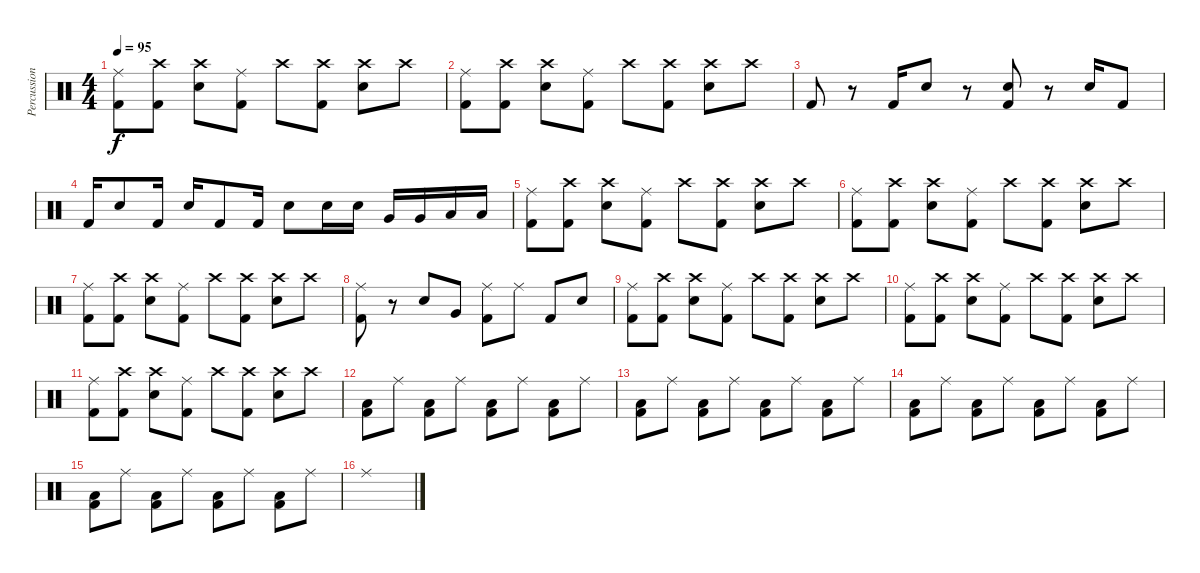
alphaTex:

\track ("Percussion" "Percussion") {instrument percussion}
\staff {score}
\articulation defaults
\ts (4 4)
\tempo 95
\clef neutral
\ks c
("Ride (middle)" "Kick (hit) 2").8{dy f} ("Crash high (hit)" "Kick (hit) 2").8 ("Crash high (hit)" "Snare (hit) 2").8 ("Ride (middle)" "Kick (hit) 2").8 "Crash high (hit)".8 ("Crash high (hit)" "Kick (hit) 2").8 ("Crash high (hit)" "Snare (hit) 2").8 "Crash high (hit)".8 |
("Ride (middle)" "Kick (hit) 2").8 ("Crash high (hit)" "Kick (hit) 2").8 ("Crash high (hit)" "Snare (hit) 2").8 ("Ride (middle)" "Kick (hit) 2").8 "Crash high (hit)".8 ("Crash high (hit)" "Kick (hit) 2").8 ("Crash high (hit)" "Snare (hit) 2").8 "Crash high (hit)".8 |
"Kick (hit) 2".8 r.8 "Kick (hit) 2".16 "Snare (hit) 2".8 r.8 ("Snare (hit) 2" "Kick (hit) 2").8 r.8 "Snare (hit) 2".16 "Kick (hit) 2".8 |
"Kick (hit) 2".16 "Snare (hit) 2".8 "Kick (hit) 2".16 "Snare (hit) 2".16 "Kick (hit) 2".8 "Kick (hit) 2".16 "Snare (hit) 2".8 "Snare (hit) 2".16 "Snare (hit) 2".16 "Very Low Tom (hit)".16 "Very Low Tom (hit)".16 "Low Floor Tom (hit)".16 "Low Floor Tom (hit)".16 |
("Ride (middle)" "Kick (hit) 2").8 ("Crash high (hit)" "Kick (hit) 2").8 ("Crash high (hit)" "Snare (hit) 2").8 ("Ride (middle)" "Kick (hit) 2").8 "Crash high (hit)".8 ("Crash high (hit)" "Kick (hit) 2").8 ("Crash high (hit)" "Snare (hit) 2").8 "Crash high (hit)".8 |
("Ride (middle)" "Kick (hit) 2").8 ("Crash high (hit)" "Kick (hit) 2").8 ("Crash high (hit)" "Snare (hit) 2").8 ("Ride (middle)" "Kick (hit) 2").8 "Crash high (hit)".8 ("Crash high (hit)" "Kick (hit) 2").8 ("Crash high (hit)" "Snare (hit) 2").8 "Crash high (hit)".8 |
("Ride (middle)" "Kick (hit) 2").8 ("Crash high (hit)" "Kick (hit) 2").8 ("Crash high (hit)" "Snare (hit) 2").8 ("Ride (middle)" "Kick (hit) 2").8 "Crash high (hit)".8 ("Crash high (hit)" "Kick (hit) 2").8 ("Crash high (hit)" "Snare (hit) 2").8 "Crash high (hit)".8 |
("Ride (middle)" "Kick (hit) 2").8 r.8 "Snare (hit) 2".8 "Very Low Tom (hit)".8 ("Ride (middle)" "Kick (hit) 2").8 "Ride (middle)".8 "Kick (hit) 2".8 "Snare (hit) 2".8 |
("Ride (middle)" "Kick (hit) 2").8 ("Crash high (hit)" "Kick (hit) 2").8 ("Crash high (hit)" "Snare (hit) 2").8 ("Ride (middle)" "Kick (hit) 2").8 "Crash high (hit)".8 ("Crash high (hit)" "Kick (hit) 2").8 ("Crash high (hit)" "Snare (hit) 2").8 "Crash high (hit)".8 |
("Ride (middle)" "Kick (hit) 2").8 ("Crash high (hit)" "Kick (hit) 2").8 ("Crash high (hit)" "Snare (hit) 2").8 ("Ride (middle)" "Kick (hit) 2").8 "Crash high (hit)".8 ("Crash high (hit)" "Kick (hit) 2").8 ("Crash high (hit)" "Snare (hit) 2").8 "Crash high (hit)".8 |
("Ride (middle)" "Kick (hit) 2").8 ("Crash high (hit)" "Kick (hit) 2").8 ("Crash high (hit)" "Snare (hit) 2").8 ("Ride (middle)" "Kick (hit) 2").8 "Crash high (hit)".8 ("Crash high (hit)" "Kick (hit) 2").8 ("Crash high (hit)" "Snare (hit) 2").8 "Crash high (hit)".8 |
("Low Floor Tom (hit)" "Kick (hit) 2").8 "Ride (middle)".8 ("Low Floor Tom (hit)" "Kick (hit) 2").8 "Ride (middle)".8 ("Low Floor Tom (hit)" "Kick (hit) 2").8 "Ride (middle)".8 ("Low Floor Tom (hit)" "Kick (hit) 2").8 "Ride (middle)".8 |
("Low Floor Tom (hit)" "Kick (hit) 2").8 "Ride (middle)".8 ("Low Floor Tom (hit)" "Kick (hit) 2").8 "Ride (middle)".8 ("Low Floor Tom (hit)" "Kick (hit) 2").8 "Ride (middle)".8 ("Low Floor Tom (hit)" "Kick (hit) 2").8 "Ride (middle)".8 |
("Low Floor Tom (hit)" "Kick (hit) 2").8 "Ride (middle)".8 ("Low Floor Tom (hit)" "Kick (hit) 2").8 "Ride (middle)".8 ("Low Floor Tom (hit)" "Kick (hit) 2").8 "Ride (middle)".8 ("Low Floor Tom (hit)" "Kick (hit) 2").8 "Ride (middle)".8 |
("Low Floor Tom (hit)" "Kick (hit) 2").8 "Ride (middle)".8 ("Low Floor Tom (hit)" "Kick (hit) 2").8 "Ride (middle)".8 ("Low Floor Tom (hit)" "Kick (hit) 2").8 "Ride (middle)".8 ("Low Floor Tom (hit)" "Kick (hit) 2").8 "Ride (middle)".8 |
"Ride (middle)".1
